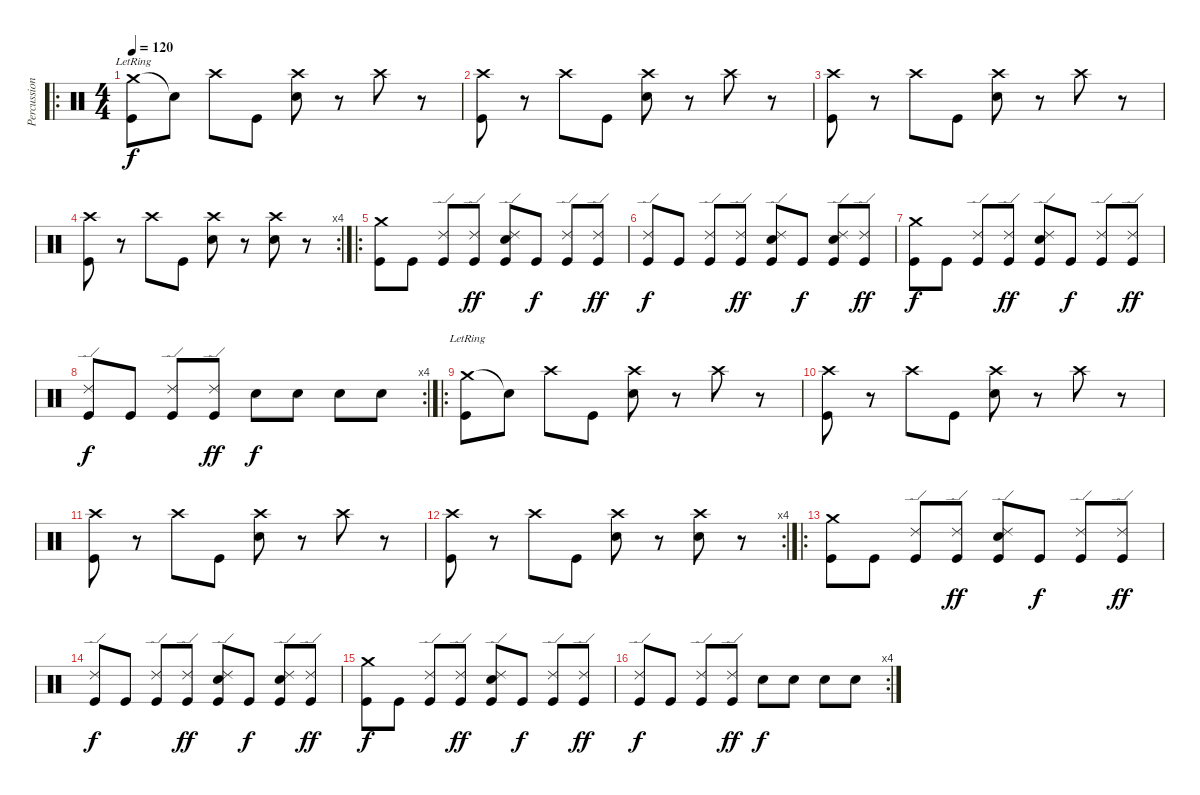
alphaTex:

\track ("Percussions" "Percussion") {instrument percussion}
\staff {score}
\articulation defaults
\ro
\ts (4 4)
\tempo 120
\clef neutral
\ks c
("Crash medium (hit)"{lr} "Kick (hit)").8{dy f} "Snare (hit)"{t}.8 "Crash high (hit)".8 "Kick (hit)".8 ("Crash high (hit)" "Electric Snare (hit)").8 r.8 "Crash high (hit)".8 r.8 |
("Crash high (hit)" "Kick (hit)").8 r.8 "Crash high (hit)".8 "Kick (hit)".8 ("Crash high (hit)" "Electric Snare (hit)").8 r.8 "Crash high (hit)".8 r.8 |
("Crash high (hit)" "Kick (hit)").8 r.8 "Crash high (hit)".8 "Kick (hit)".8 ("Crash high (hit)" "Electric Snare (hit)").8 r.8 "Crash high (hit)".8 r.8 |
\rc 4
("Crash high (hit)" "Kick (hit)").8 r.8 "Crash high (hit)".8 "Kick (hit)".8 ("Crash high (hit)" "Electric Snare (hit)").8 r.8 ("Crash high (hit)" "Electric Snare (hit)").8 r.8 |
\ro
("Crash medium (hit)" "Kick (hit)").8 "Kick (hit)".8 ("Ride (edge) 2" "Kick (hit)").8 ("Ride (edge) 2" "Kick (hit)").8{dy ff} ("Ride (edge) 2" "Electric Snare (hit)" "Kick (hit)").8 "Kick (hit)".8{dy f} ("Ride (edge) 2" "Kick (hit)").8 ("Ride (edge) 2" "Kick (hit)").8{dy ff} |
("Ride (edge) 2" "Kick (hit)").8{dy f} "Kick (hit)".8 ("Ride (edge) 2" "Kick (hit)").8 ("Ride (edge) 2" "Kick (hit)").8{dy ff} ("Ride (edge) 2" "Electric Snare (hit)" "Kick (hit)").8 "Kick (hit)".8{dy f} ("Ride (edge) 2" "Electric Snare (hit)" "Kick (hit)").8 ("Ride (edge) 2" "Kick (hit)").8{dy ff} |
("Crash medium (hit)" "Kick (hit)").8{dy f} "Kick (hit)".8 ("Ride (edge) 2" "Kick (hit)").8 ("Ride (edge) 2" "Kick (hit)").8{dy ff} ("Ride (edge) 2" "Electric Snare (hit)" "Kick (hit)").8 "Kick (hit)".8{dy f} ("Ride (edge) 2" "Kick (hit)").8 ("Ride (edge) 2" "Kick (hit)").8{dy ff} |
\rc 4
("Ride (edge) 2" "Kick (hit)").8{dy f} "Kick (hit)".8 ("Ride (edge) 2" "Kick (hit)").8 ("Ride (edge) 2" "Kick (hit)").8{dy ff} "Electric Snare (hit)".8{dy f} "Electric Snare (hit)".8 "Electric Snare (hit)".8 "Electric Snare (hit)".8 |
\ro
("Crash medium (hit)"{lr} "Kick (hit)").8 "Snare (hit)"{t}.8 "Crash high (hit)".8 "Kick (hit)".8 ("Crash high (hit)" "Electric Snare (hit)").8 r.8 "Crash high (hit)".8 r.8 |
("Crash high (hit)" "Kick (hit)").8 r.8 "Crash high (hit)".8 "Kick (hit)".8 ("Crash high (hit)" "Electric Snare (hit)").8 r.8 "Crash high (hit)".8 r.8 |
("Crash high (hit)" "Kick (hit)").8 r.8 "Crash high (hit)".8 "Kick (hit)".8 ("Crash high (hit)" "Electric Snare (hit)").8 r.8 "Crash high (hit)".8 r.8 |
\rc 4
("Crash high (hit)" "Kick (hit)").8 r.8 "Crash high (hit)".8 "Kick (hit)".8 ("Crash high (hit)" "Electric Snare (hit)").8 r.8 ("Crash high (hit)" "Electric Snare (hit)").8 r.8 |
\ro
("Crash medium (hit)" "Kick (hit)").8 "Kick (hit)".8 ("Ride (edge) 2" "Kick (hit)").8 ("Ride (edge) 2" "Kick (hit)").8{dy ff} ("Ride (edge) 2" "Electric Snare (hit)" "Kick (hit)").8 "Kick (hit)".8{dy f} ("Ride (edge) 2" "Kick (hit)").8 ("Ride (edge) 2" "Kick (hit)").8{dy ff} |
("Ride (edge) 2" "Kick (hit)").8{dy f} "Kick (hit)".8 ("Ride (edge) 2" "Kick (hit)").8 ("Ride (edge) 2" "Kick (hit)").8{dy ff} ("Ride (edge) 2" "Electric Snare (hit)" "Kick (hit)").8 "Kick (hit)".8{dy f} ("Ride (edge) 2" "Electric Snare (hit)" "Kick (hit)").8 ("Ride (edge) 2" "Kick (hit)").8{dy ff} |
("Crash medium (hit)" "Kick (hit)").8{dy f} "Kick (hit)".8 ("Ride (edge) 2" "Kick (hit)").8 ("Ride (edge) 2" "Kick (hit)").8{dy ff} ("Ride (edge) 2" "Electric Snare (hit)" "Kick (hit)").8 "Kick (hit)".8{dy f} ("Ride (edge) 2" "Kick (hit)").8 ("Ride (edge) 2" "Kick (hit)").8{dy ff} |
\rc 4
("Ride (edge) 2" "Kick (hit)").8{dy f} "Kick (hit)".8 ("Ride (edge) 2" "Kick (hit)").8 ("Ride (edge) 2" "Kick (hit)").8{dy ff} "Electric Snare (hit)".8{dy f} "Electric Snare (hit)".8 "Electric Snare (hit)".8 "Electric Snare (hit)".8
